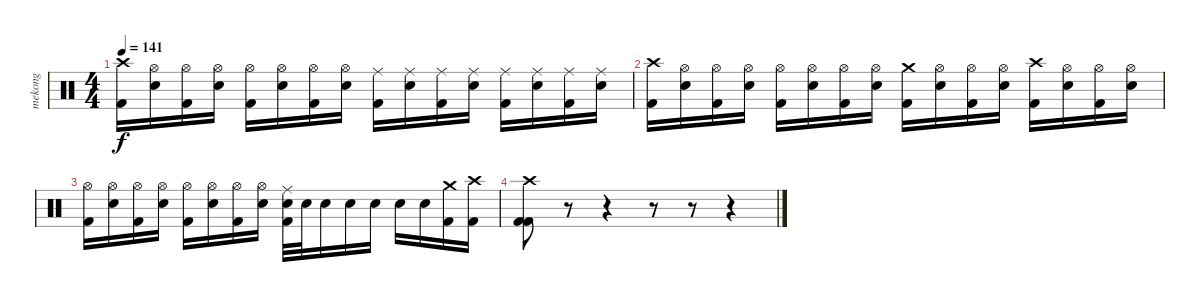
\track ("mekong" "mekong") {instrument percussion}
\staff {score}
\articulation defaults
\ts (4 4)
\tempo 141
\clef neutral
\ks c
("Crash high (hit)" "Kick (hit) 2").16{dy f} ("Electric Snare (hit)" "Hi-Hat (open)").16 ("Hi-Hat (open)" "Kick (hit) 2").16 ("Electric Snare (hit)" "Hi-Hat (open)").16 ("Hi-Hat (open)" "Kick (hit) 2").16 ("Electric Snare (hit)" "Hi-Hat (open)").16 ("Hi-Hat (open)" "Kick (hit) 2").16 ("Electric Snare (hit)" "Hi-Hat (open)").16 ("Ride (middle)" "Kick (hit) 2").16 ("Electric Snare (hit)" "Ride (middle)").16 ("Ride (middle)" "Kick (hit) 2").16 ("Electric Snare (hit)" "Ride (middle)").16 ("Ride (middle)" "Kick (hit) 2").16 ("Electric Snare (hit)" "Ride (middle)").16 ("Ride (middle)" "Kick (hit) 2").16 ("Electric Snare (hit)" "Ride (middle)").16 |
("Crash high (hit)" "Kick (hit) 2").16 ("Electric Snare (hit)" "Hi-Hat (open)").16 ("Hi-Hat (open)" "Kick (hit) 2").16 ("Electric Snare (hit)" "Hi-Hat (open)").16 ("Hi-Hat (open)" "Kick (hit) 2").16 ("Electric Snare (hit)" "Hi-Hat (open)").16 ("Hi-Hat (open)" "Kick (hit) 2").16 ("Electric Snare (hit)" "Hi-Hat (open)").16 ("Crash medium (hit)" "Kick (hit) 2").16 ("Electric Snare (hit)" "Hi-Hat (open)").16 ("Hi-Hat (open)" "Kick (hit) 2").16 ("Electric Snare (hit)" "Hi-Hat (open)").16 ("Crash high (hit)" "Kick (hit) 2").16 ("Electric Snare (hit)" "Hi-Hat (open)").16 ("Hi-Hat (open)" "Kick (hit) 2").16 ("Electric Snare (hit)" "Hi-Hat (open)").16 |
("Hi-Hat (open)" "Kick (hit) 2").16 ("Electric Snare (hit)" "Hi-Hat (open)").16 ("Hi-Hat (open)" "Kick (hit) 2").16 ("Electric Snare (hit)" "Hi-Hat (open)").16 ("Hi-Hat (open)" "Kick (hit) 2").16 ("Electric Snare (hit)" "Hi-Hat (open)").16 ("Hi-Hat (open)" "Kick (hit) 2").16 ("Electric Snare (hit)" "Hi-Hat (open)").16 ("Electric Snare (hit)" "Ride (middle)" "Kick (hit) 2").32 "Electric Snare (hit)".32 "Electric Snare (hit)".16 "Electric Snare (hit)".16 "Electric Snare (hit)".16 "Electric Snare (hit)".16 "Electric Snare (hit)".16 ("Crash medium (hit)" "Kick (hit) 2").16 ("Crash high (hit)" "Kick (hit) 2").16 |
("Crash high (hit)" "Kick (hit) 2" "Kick (hit) 2").8 r.8 r.4 r.8 r.8 r.4
